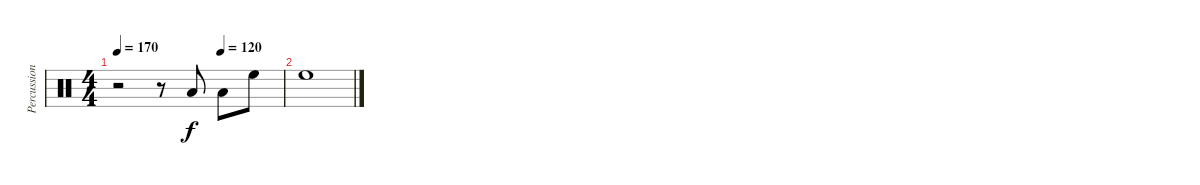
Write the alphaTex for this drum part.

\track ("Percussion" "Percussion") {instrument percussion}
\staff {score}
\articulation defaults
\ts (4 4)
\tempo 170
\tempo (120 0.625)
\clef neutral
\ks c
r.2{dy f} r.8 "Low Tom (hit)".8 "Low Tom (hit)".8 "High Floor Tom (hit)".8 |
"High Floor Tom (hit)".1
